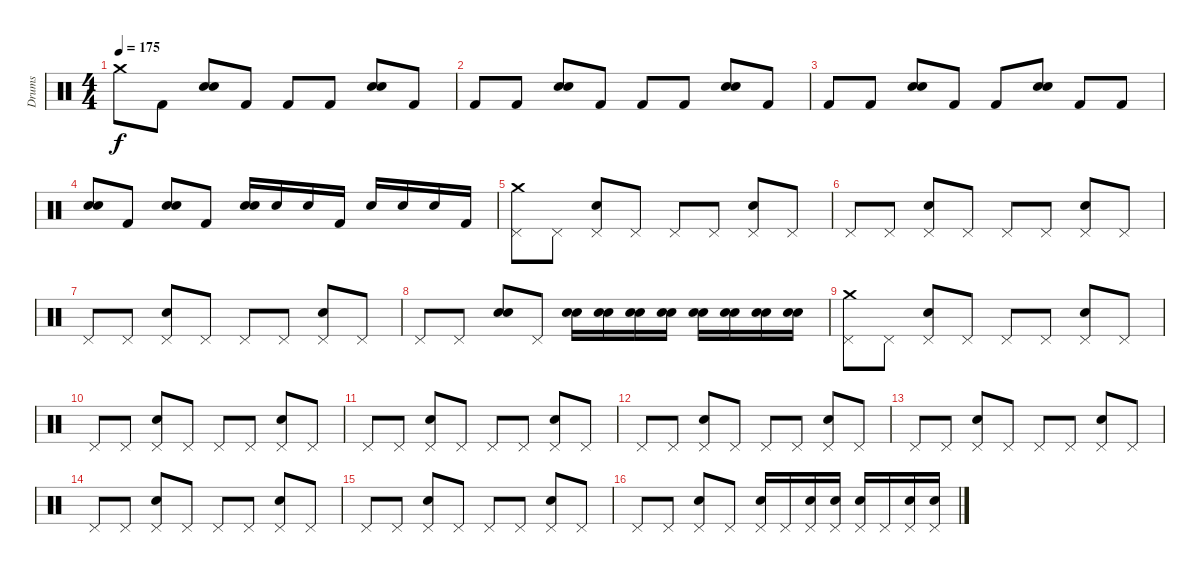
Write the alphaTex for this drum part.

\track ("Drums" "Drums") {instrument percussion}
\staff {score}
\articulation defaults
\ts (4 4)
\tempo 175
\clef neutral
\ks c "Crash medium (hit)".8{dy f} "Kick (hit) 2".8
("Snare (hit) 2" "Snare (hit) 2").8 "Kick (hit) 2".8 "Kick (hit) 2".8 "Kick (hit) 2".8 ("Snare (hit) 2" "Snare (hit) 2").8 "Kick (hit) 2".8 |
"Kick (hit) 2".8 "Kick (hit) 2".8 ("Snare (hit) 2" "Snare (hit) 2").8 "Kick (hit) 2".8 "Kick (hit) 2".8 "Kick (hit) 2".8 ("Snare (hit) 2" "Snare (hit) 2").8 "Kick (hit) 2".8 |
"Kick (hit) 2".8 "Kick (hit) 2".8 ("Snare (hit) 2" "Snare (hit) 2").8 "Kick (hit) 2".8 "Kick (hit) 2".8 ("Snare (hit) 2" "Snare (hit) 2").8 "Kick (hit) 2".8 "Kick (hit) 2".8 |
("Snare (hit) 2" "Snare (hit) 2").8 "Kick (hit) 2".8 ("Snare (hit) 2" "Snare (hit) 2").8 "Kick (hit) 2".8 ("Snare (hit) 2" "Snare (hit) 2").16 "Snare (hit) 2".16 "Snare (hit) 2".16 "Kick (hit) 2".16 "Snare (hit) 2".16 "Snare (hit) 2".16 "Snare (hit) 2".16 "Kick (hit) 2".16 |
("Pedal Hi-Hat (hit)" "Crash medium (hit)").8 "Pedal Hi-Hat (hit)".8 ("Pedal Hi-Hat (hit)" "Snare (hit) 2").8 "Pedal Hi-Hat (hit)".8 "Pedal Hi-Hat (hit)".8 "Pedal Hi-Hat (hit)".8 ("Pedal Hi-Hat (hit)" "Snare (hit) 2").8 "Pedal Hi-Hat (hit)".8 |
"Pedal Hi-Hat (hit)".8 "Pedal Hi-Hat (hit)".8 ("Pedal Hi-Hat (hit)" "Snare (hit) 2").8 "Pedal Hi-Hat (hit)".8 "Pedal Hi-Hat (hit)".8 "Pedal Hi-Hat (hit)".8 ("Pedal Hi-Hat (hit)" "Snare (hit) 2").8 "Pedal Hi-Hat (hit)".8 |
"Pedal Hi-Hat (hit)".8 "Pedal Hi-Hat (hit)".8 ("Pedal Hi-Hat (hit)" "Snare (hit) 2").8 "Pedal Hi-Hat (hit)".8 "Pedal Hi-Hat (hit)".8 "Pedal Hi-Hat (hit)".8 ("Pedal Hi-Hat (hit)" "Snare (hit) 2").8 "Pedal Hi-Hat (hit)".8 |
"Pedal Hi-Hat (hit)".8{volume 4} "Pedal Hi-Hat (hit)".8 ("Snare (hit) 2" "Snare (hit) 2").8{volume 13} "Pedal Hi-Hat (hit)".8 ("Snare (hit) 2" "Snare (hit) 2").16 ("Snare (hit) 2" "Snare (hit) 2").16 ("Snare (hit) 2" "Snare (hit) 2").16 ("Snare (hit) 2" "Snare (hit) 2").16 ("Snare (hit) 2" "Snare (hit) 2").16 ("Snare (hit) 2" "Snare (hit) 2").16 ("Snare (hit) 2" "Snare (hit) 2").16 ("Snare (hit) 2" "Snare (hit) 2").16 |
("Pedal Hi-Hat (hit)" "Crash medium (hit)").8 "Pedal Hi-Hat (hit)".8 ("Pedal Hi-Hat (hit)" "Snare (hit) 2").8 "Pedal Hi-Hat (hit)".8 "Pedal Hi-Hat (hit)".8 "Pedal Hi-Hat (hit)".8 ("Pedal Hi-Hat (hit)" "Snare (hit) 2").8 "Pedal Hi-Hat (hit)".8 |
"Pedal Hi-Hat (hit)".8 "Pedal Hi-Hat (hit)".8 ("Pedal Hi-Hat (hit)" "Snare (hit) 2").8 "Pedal Hi-Hat (hit)".8 "Pedal Hi-Hat (hit)".8 "Pedal Hi-Hat (hit)".8 ("Pedal Hi-Hat (hit)" "Snare (hit) 2").8 "Pedal Hi-Hat (hit)".8 |
"Pedal Hi-Hat (hit)".8 "Pedal Hi-Hat (hit)".8 ("Pedal Hi-Hat (hit)" "Snare (hit) 2").8 "Pedal Hi-Hat (hit)".8 "Pedal Hi-Hat (hit)".8 "Pedal Hi-Hat (hit)".8 ("Pedal Hi-Hat (hit)" "Snare (hit) 2").8 "Pedal Hi-Hat (hit)".8 |
"Pedal Hi-Hat (hit)".8 "Pedal Hi-Hat (hit)".8 ("Pedal Hi-Hat (hit)" "Snare (hit) 2").8 "Pedal Hi-Hat (hit)".8 "Pedal Hi-Hat (hit)".8 "Pedal Hi-Hat (hit)".8 ("Pedal Hi-Hat (hit)" "Snare (hit) 2").8 "Pedal Hi-Hat (hit)".8 |
"Pedal Hi-Hat (hit)".8 "Pedal Hi-Hat (hit)".8 ("Pedal Hi-Hat (hit)" "Snare (hit) 2").8 "Pedal Hi-Hat (hit)".8 "Pedal Hi-Hat (hit)".8 "Pedal Hi-Hat (hit)".8 ("Pedal Hi-Hat (hit)" "Snare (hit) 2").8 "Pedal Hi-Hat (hit)".8 |
"Pedal Hi-Hat (hit)".8 "Pedal Hi-Hat (hit)".8 ("Pedal Hi-Hat (hit)" "Snare (hit) 2").8 "Pedal Hi-Hat (hit)".8 "Pedal Hi-Hat (hit)".8 "Pedal Hi-Hat (hit)".8 ("Pedal Hi-Hat (hit)" "Snare (hit) 2").8 "Pedal Hi-Hat (hit)".8 |
"Pedal Hi-Hat (hit)".8 "Pedal Hi-Hat (hit)".8 ("Pedal Hi-Hat (hit)" "Snare (hit) 2").8 "Pedal Hi-Hat (hit)".8 "Pedal Hi-Hat (hit)".8 "Pedal Hi-Hat (hit)".8 ("Pedal Hi-Hat (hit)" "Snare (hit) 2").8 "Pedal Hi-Hat (hit)".8 |
"Pedal Hi-Hat (hit)".8 "Pedal Hi-Hat (hit)".8 ("Pedal Hi-Hat (hit)" "Snare (hit) 2").8 "Pedal Hi-Hat (hit)".8 ("Pedal Hi-Hat (hit)" "Snare (hit) 2").16 "Pedal Hi-Hat (hit)".16 ("Pedal Hi-Hat (hit)" "Snare (hit) 2").16 ("Pedal Hi-Hat (hit)" "Snare (hit) 2").16 ("Pedal Hi-Hat (hit)" "Snare (hit) 2").16 "Pedal Hi-Hat (hit)".16 ("Pedal Hi-Hat (hit)" "Snare (hit) 2").16 ("Pedal Hi-Hat (hit)" "Snare (hit) 2").16
